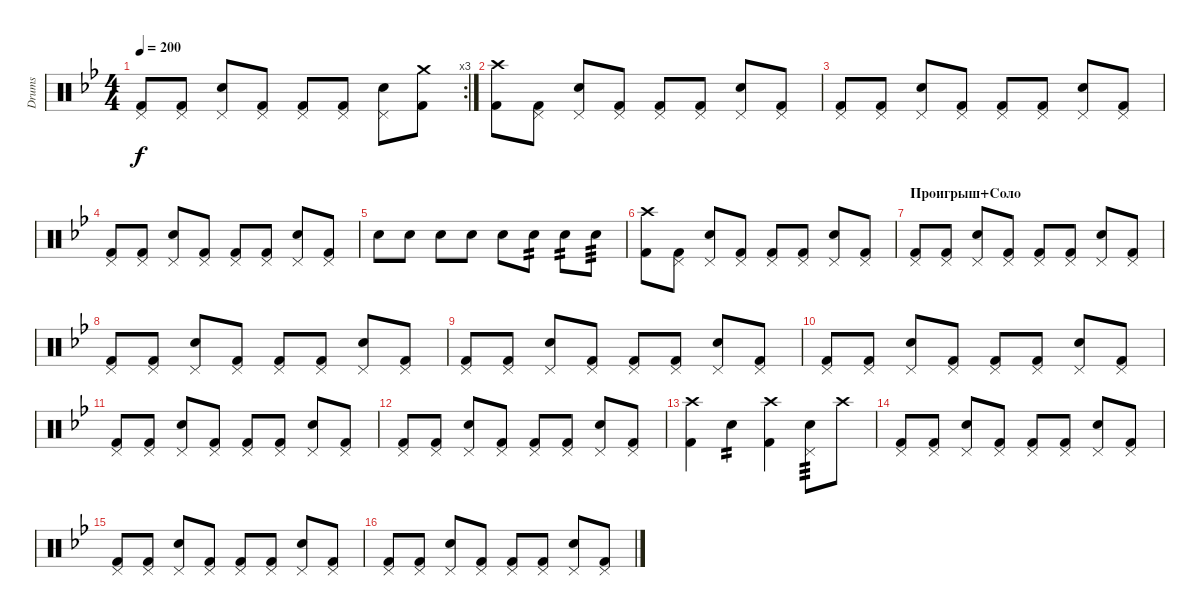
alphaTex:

\track ("Drums" "Drums") {instrument percussion}
\staff {score}
\articulation defaults
\rc 3
\ts (4 4)
\tempo 200
\clef neutral
\ks bb
("Pedal Hi-Hat (hit)" "Kick (hit) 2").8{dy f} ("Pedal Hi-Hat (hit)" "Kick (hit) 2").8 ("Pedal Hi-Hat (hit)" "Electric Snare (hit)").8 ("Pedal Hi-Hat (hit)" "Kick (hit) 2").8 ("Pedal Hi-Hat (hit)" "Kick (hit) 2").8 ("Pedal Hi-Hat (hit)" "Kick (hit) 2").8 ("Pedal Hi-Hat (hit)" "Electric Snare (hit)").8 ("Crash medium (hit)" "Kick (hit) 2").8 |
("Crash high (hit)" "Kick (hit) 2").8 ("Pedal Hi-Hat (hit)" "Kick (hit) 2").8 ("Pedal Hi-Hat (hit)" "Electric Snare (hit)").8 ("Pedal Hi-Hat (hit)" "Kick (hit) 2").8 ("Pedal Hi-Hat (hit)" "Kick (hit) 2").8 ("Pedal Hi-Hat (hit)" "Kick (hit) 2").8 ("Pedal Hi-Hat (hit)" "Electric Snare (hit)").8 ("Pedal Hi-Hat (hit)" "Kick (hit) 2").8 |
("Pedal Hi-Hat (hit)" "Kick (hit) 2").8 ("Pedal Hi-Hat (hit)" "Kick (hit) 2").8 ("Pedal Hi-Hat (hit)" "Electric Snare (hit)").8 ("Pedal Hi-Hat (hit)" "Kick (hit) 2").8 ("Pedal Hi-Hat (hit)" "Kick (hit) 2").8 ("Pedal Hi-Hat (hit)" "Kick (hit) 2").8 ("Pedal Hi-Hat (hit)" "Electric Snare (hit)").8 ("Pedal Hi-Hat (hit)" "Kick (hit) 2").8 |
("Pedal Hi-Hat (hit)" "Kick (hit) 2").8 ("Pedal Hi-Hat (hit)" "Kick (hit) 2").8 ("Pedal Hi-Hat (hit)" "Electric Snare (hit)").8 ("Pedal Hi-Hat (hit)" "Kick (hit) 2").8 ("Pedal Hi-Hat (hit)" "Kick (hit) 2").8 ("Pedal Hi-Hat (hit)" "Kick (hit) 2").8 ("Pedal Hi-Hat (hit)" "Electric Snare (hit)").8 ("Pedal Hi-Hat (hit)" "Kick (hit) 2").8 |
"Electric Snare (hit)".8 "Electric Snare (hit)".8 "Electric Snare (hit)".8 "Electric Snare (hit)".8 "Electric Snare (hit)".8 "Electric Snare (hit)".8{tp 2} "Electric Snare (hit)".8{tp 2} "Electric Snare (hit)".8{tp 3} |
("Crash high (hit)" "Kick (hit) 2").8 ("Pedal Hi-Hat (hit)" "Kick (hit) 2").8 ("Pedal Hi-Hat (hit)" "Electric Snare (hit)").8 ("Pedal Hi-Hat (hit)" "Kick (hit) 2").8 ("Pedal Hi-Hat (hit)" "Kick (hit) 2").8 ("Pedal Hi-Hat (hit)" "Kick (hit) 2").8 ("Pedal Hi-Hat (hit)" "Electric Snare (hit)").8 ("Pedal Hi-Hat (hit)" "Kick (hit) 2").8 |
\section ("" "Проигрыш+Соло")
("Pedal Hi-Hat (hit)" "Kick (hit) 2").8 ("Pedal Hi-Hat (hit)" "Kick (hit) 2").8 ("Pedal Hi-Hat (hit)" "Electric Snare (hit)").8 ("Pedal Hi-Hat (hit)" "Kick (hit) 2").8 ("Pedal Hi-Hat (hit)" "Kick (hit) 2").8 ("Pedal Hi-Hat (hit)" "Kick (hit) 2").8 ("Pedal Hi-Hat (hit)" "Electric Snare (hit)").8 ("Pedal Hi-Hat (hit)" "Kick (hit) 2").8 |
("Pedal Hi-Hat (hit)" "Kick (hit) 2").8 ("Pedal Hi-Hat (hit)" "Kick (hit) 2").8 ("Pedal Hi-Hat (hit)" "Electric Snare (hit)").8 ("Pedal Hi-Hat (hit)" "Kick (hit) 2").8 ("Pedal Hi-Hat (hit)" "Kick (hit) 2").8 ("Pedal Hi-Hat (hit)" "Kick (hit) 2").8 ("Pedal Hi-Hat (hit)" "Electric Snare (hit)").8 ("Pedal Hi-Hat (hit)" "Kick (hit) 2").8 |
("Pedal Hi-Hat (hit)" "Kick (hit) 2").8 ("Pedal Hi-Hat (hit)" "Kick (hit) 2").8 ("Pedal Hi-Hat (hit)" "Electric Snare (hit)").8 ("Pedal Hi-Hat (hit)" "Kick (hit) 2").8 ("Pedal Hi-Hat (hit)" "Kick (hit) 2").8 ("Pedal Hi-Hat (hit)" "Kick (hit) 2").8 ("Pedal Hi-Hat (hit)" "Electric Snare (hit)").8 ("Pedal Hi-Hat (hit)" "Kick (hit) 2").8 |
("Pedal Hi-Hat (hit)" "Kick (hit) 2").8 ("Pedal Hi-Hat (hit)" "Kick (hit) 2").8 ("Pedal Hi-Hat (hit)" "Electric Snare (hit)").8 ("Pedal Hi-Hat (hit)" "Kick (hit) 2").8 ("Pedal Hi-Hat (hit)" "Kick (hit) 2").8 ("Pedal Hi-Hat (hit)" "Kick (hit) 2").8 ("Pedal Hi-Hat (hit)" "Electric Snare (hit)").8 ("Pedal Hi-Hat (hit)" "Kick (hit) 2").8 |
("Pedal Hi-Hat (hit)" "Kick (hit) 2").8 ("Pedal Hi-Hat (hit)" "Kick (hit) 2").8 ("Pedal Hi-Hat (hit)" "Electric Snare (hit)").8 ("Pedal Hi-Hat (hit)" "Kick (hit) 2").8 ("Pedal Hi-Hat (hit)" "Kick (hit) 2").8 ("Pedal Hi-Hat (hit)" "Kick (hit) 2").8 ("Pedal Hi-Hat (hit)" "Electric Snare (hit)").8 ("Pedal Hi-Hat (hit)" "Kick (hit) 2").8 |
("Pedal Hi-Hat (hit)" "Kick (hit) 2").8 ("Pedal Hi-Hat (hit)" "Kick (hit) 2").8 ("Pedal Hi-Hat (hit)" "Electric Snare (hit)").8 ("Pedal Hi-Hat (hit)" "Kick (hit) 2").8 ("Pedal Hi-Hat (hit)" "Kick (hit) 2").8 ("Pedal Hi-Hat (hit)" "Kick (hit) 2").8 ("Pedal Hi-Hat (hit)" "Electric Snare (hit)").8 ("Pedal Hi-Hat (hit)" "Kick (hit) 2").8 |
("Crash high (hit)" "Kick (hit) 2").4 "Electric Snare (hit)".4{tp 2} ("Crash high (hit)" "Kick (hit) 2").4 ("Pedal Hi-Hat (hit)" "Electric Snare (hit)").8{tp 3} "Crash high (hit)".8 |
("Pedal Hi-Hat (hit)" "Kick (hit) 2").8 ("Pedal Hi-Hat (hit)" "Kick (hit) 2").8 ("Pedal Hi-Hat (hit)" "Electric Snare (hit)").8 ("Pedal Hi-Hat (hit)" "Kick (hit) 2").8 ("Pedal Hi-Hat (hit)" "Kick (hit) 2").8 ("Pedal Hi-Hat (hit)" "Kick (hit) 2").8 ("Pedal Hi-Hat (hit)" "Electric Snare (hit)").8 ("Pedal Hi-Hat (hit)" "Kick (hit) 2").8 |
("Pedal Hi-Hat (hit)" "Kick (hit) 2").8 ("Pedal Hi-Hat (hit)" "Kick (hit) 2").8 ("Pedal Hi-Hat (hit)" "Electric Snare (hit)").8 ("Pedal Hi-Hat (hit)" "Kick (hit) 2").8 ("Pedal Hi-Hat (hit)" "Kick (hit) 2").8 ("Pedal Hi-Hat (hit)" "Kick (hit) 2").8 ("Pedal Hi-Hat (hit)" "Electric Snare (hit)").8 ("Pedal Hi-Hat (hit)" "Kick (hit) 2").8 |
("Pedal Hi-Hat (hit)" "Kick (hit) 2").8 ("Pedal Hi-Hat (hit)" "Kick (hit) 2").8 ("Pedal Hi-Hat (hit)" "Electric Snare (hit)").8 ("Pedal Hi-Hat (hit)" "Kick (hit) 2").8 ("Pedal Hi-Hat (hit)" "Kick (hit) 2").8 ("Pedal Hi-Hat (hit)" "Kick (hit) 2").8 ("Pedal Hi-Hat (hit)" "Electric Snare (hit)").8 ("Pedal Hi-Hat (hit)" "Kick (hit) 2").8
